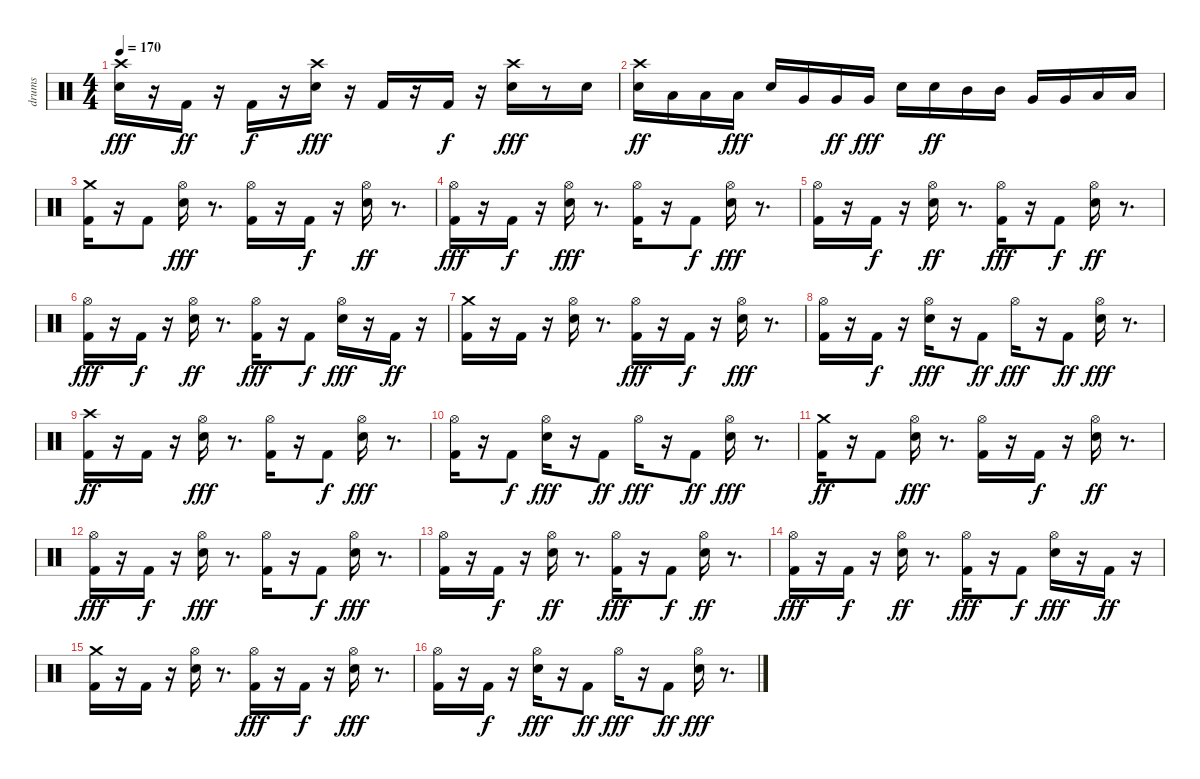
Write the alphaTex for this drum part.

\track ("drums" "drums") {instrument percussion}
\staff {score}
\articulation defaults
\ts (4 4)
\tempo 170
\clef neutral
\ks c
("Crash high (hit)" "Snare (hit) 2").16{dy fff} r.16 "Kick (hit) 2".16{dy ff} r.16 "Kick (hit) 2".16{dy f} r.16 ("Crash high (hit)" "Snare (hit) 2").16{dy fff} r.16 "Kick (hit) 2".16 r.16 "Kick (hit) 2".16{dy f} r.16 ("Crash high (hit)" "Snare (hit) 2").16{dy fff} r.8 "Snare (hit) 2".16 |
("Crash high (hit)" "Snare (hit) 2").16{dy ff} "Low Tom (hit)".16 "Low Tom (hit)".16 "Low Tom (hit)".16{dy fff} "Snare (hit) 2".16 "Very Low Tom (hit)".16 "Very Low Tom (hit)".16{dy ff} "Very Low Tom (hit)".16{dy fff} "Snare (hit) 2".16 "Snare (hit) 2".16{dy ff} "Mid Tom (hit)".16 "Mid Tom (hit)".16 "Very Low Tom (hit)".16 "Very Low Tom (hit)".16 "Low Floor Tom (hit)".16 "Low Floor Tom (hit)".16 |
("Kick (hit) 2" "Crash medium (hit)").16 r.16 "Kick (hit) 2".8 ("Hi-Hat (open)" "Snare (hit) 2").16{dy fff} r.8{d} ("Kick (hit) 2" "Hi-Hat (open)").16 r.16 "Kick (hit) 2".16{dy f} r.16 ("Hi-Hat (open)" "Snare (hit) 2").16{dy ff} r.8{d} |
("Hi-Hat (open)" "Kick (hit) 2").16{dy fff} r.16 "Kick (hit) 2".16{dy f} r.16 ("Snare (hit) 2" "Hi-Hat (open)").16{dy fff} r.8{d} ("Kick (hit) 2" "Hi-Hat (open)").16 r.16 "Kick (hit) 2".8{dy f} ("Snare (hit) 2" "Hi-Hat (open)").16{dy fff} r.8{d} |
("Kick (hit) 2" "Hi-Hat (open)").16 r.16 "Kick (hit) 2".16{dy f} r.16 ("Hi-Hat (open)" "Snare (hit) 2").16{dy ff} r.8{d} ("Kick (hit) 2" "Hi-Hat (open)").16{dy fff} r.16 "Kick (hit) 2".8{dy f} ("Hi-Hat (open)" "Snare (hit) 2").16{dy ff} r.8{d} |
("Kick (hit) 2" "Hi-Hat (open)").16{dy fff} r.16 "Kick (hit) 2".16{dy f} r.16 ("Hi-Hat (open)" "Snare (hit) 2").16{dy ff} r.8{d} ("Kick (hit) 2" "Hi-Hat (open)").16{dy fff} r.16 "Kick (hit) 2".8{dy f} ("Snare (hit) 2" "Hi-Hat (open)").16{dy fff} r.16 "Kick (hit) 2".16{dy ff} r.16 |
("Crash medium (hit)" "Kick (hit) 2").16 r.16 "Kick (hit) 2".16 r.16 ("Snare (hit) 2" "Hi-Hat (open)").16 r.8{d} ("Kick (hit) 2" "Hi-Hat (open)").16{dy fff} r.16 "Kick (hit) 2".16{dy f} r.16 ("Snare (hit) 2" "Hi-Hat (open)").16{dy fff} r.8{d} |
("Kick (hit) 2" "Hi-Hat (open)").16 r.16 "Kick (hit) 2".16{dy f} r.16 ("Snare (hit) 2" "Hi-Hat (open)").16{dy fff} r.16 "Kick (hit) 2".8{dy ff} "Hi-Hat (open)".16{dy fff} r.16 "Kick (hit) 2".8{dy ff} ("Snare (hit) 2" "Hi-Hat (open)").16{dy fff} r.8{d} |
("Crash high (hit)" "Kick (hit) 2").16{dy ff} r.16 "Kick (hit) 2".16 r.16 ("Hi-Hat (open)" "Snare (hit) 2").16{dy fff} r.8{d} ("Kick (hit) 2" "Hi-Hat (open)").16 r.16 "Kick (hit) 2".8{dy f} ("Snare (hit) 2" "Hi-Hat (open)").16{dy fff} r.8{d} |
("Kick (hit) 2" "Hi-Hat (open)").16 r.16 "Kick (hit) 2".8{dy f} ("Snare (hit) 2" "Hi-Hat (open)").16{dy fff} r.16 "Kick (hit) 2".8{dy ff} "Hi-Hat (open)".16{dy fff} r.16 "Kick (hit) 2".8{dy ff} ("Snare (hit) 2" "Hi-Hat (open)").16{dy fff} r.8{d} |
("Kick (hit) 2" "Crash medium (hit)").16{dy ff} r.16 "Kick (hit) 2".8 ("Hi-Hat (open)" "Snare (hit) 2").16{dy fff} r.8{d} ("Kick (hit) 2" "Hi-Hat (open)").16 r.16 "Kick (hit) 2".16{dy f} r.16 ("Hi-Hat (open)" "Snare (hit) 2").16{dy ff} r.8{d} |
("Hi-Hat (open)" "Kick (hit) 2").16{dy fff} r.16 "Kick (hit) 2".16{dy f} r.16 ("Snare (hit) 2" "Hi-Hat (open)").16{dy fff} r.8{d} ("Kick (hit) 2" "Hi-Hat (open)").16 r.16 "Kick (hit) 2".8{dy f} ("Snare (hit) 2" "Hi-Hat (open)").16{dy fff} r.8{d} |
("Kick (hit) 2" "Hi-Hat (open)").16 r.16 "Kick (hit) 2".16{dy f} r.16 ("Hi-Hat (open)" "Snare (hit) 2").16{dy ff} r.8{d} ("Kick (hit) 2" "Hi-Hat (open)").16{dy fff} r.16 "Kick (hit) 2".8{dy f} ("Hi-Hat (open)" "Snare (hit) 2").16{dy ff} r.8{d} |
("Kick (hit) 2" "Hi-Hat (open)").16{dy fff} r.16 "Kick (hit) 2".16{dy f} r.16 ("Hi-Hat (open)" "Snare (hit) 2").16{dy ff} r.8{d} ("Kick (hit) 2" "Hi-Hat (open)").16{dy fff} r.16 "Kick (hit) 2".8{dy f} ("Snare (hit) 2" "Hi-Hat (open)").16{dy fff} r.16 "Kick (hit) 2".16{dy ff} r.16 |
("Crash medium (hit)" "Kick (hit) 2").16 r.16 "Kick (hit) 2".16 r.16 ("Snare (hit) 2" "Hi-Hat (open)").16 r.8{d} ("Kick (hit) 2" "Hi-Hat (open)").16{dy fff} r.16 "Kick (hit) 2".16{dy f} r.16 ("Snare (hit) 2" "Hi-Hat (open)").16{dy fff} r.8{d} |
("Kick (hit) 2" "Hi-Hat (open)").16 r.16 "Kick (hit) 2".16{dy f} r.16 ("Snare (hit) 2" "Hi-Hat (open)").16{dy fff} r.16 "Kick (hit) 2".8{dy ff} "Hi-Hat (open)".16{dy fff} r.16 "Kick (hit) 2".8{dy ff} ("Snare (hit) 2" "Hi-Hat (open)").16{dy fff} r.8{d}
